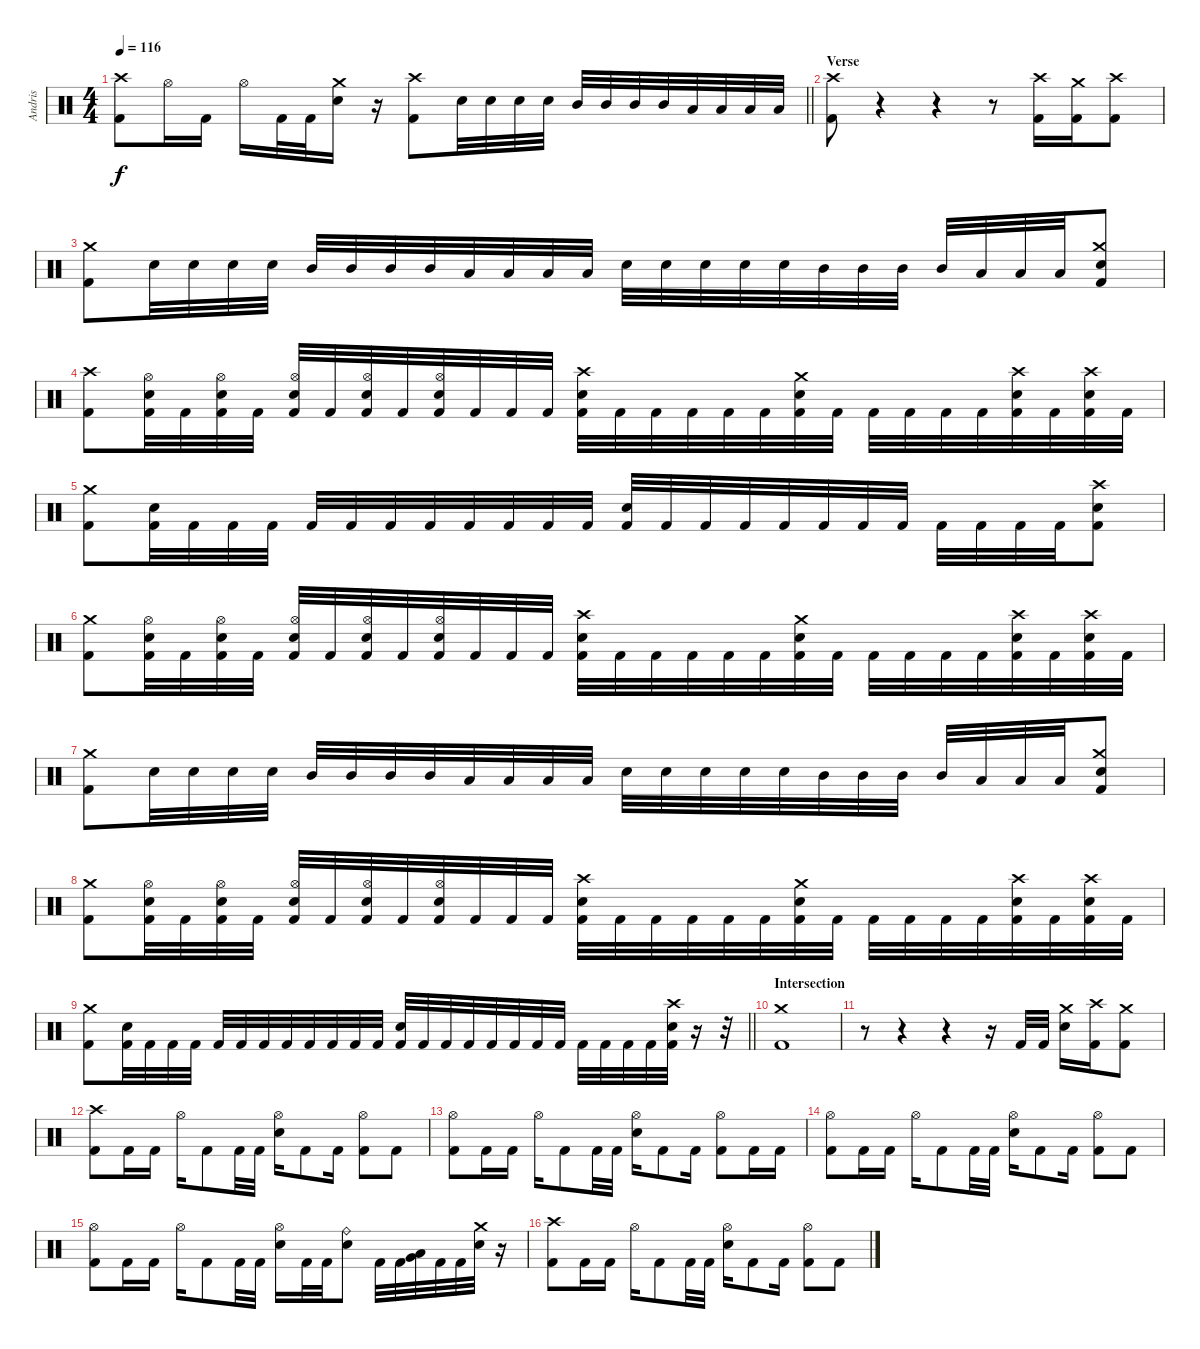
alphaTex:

\track ("Andris" "Andris") {instrument percussion}
\staff {score}
\articulation defaults
\ts (4 4)
\tempo 116
\clef neutral
\barLineRight lightlight
\ks c
("Crash high (hit)" "Kick (hit) 2").8{dy f} "Hi-Hat (open)".16 "Kick (hit) 2".16 "Hi-Hat (open)".16 "Kick (hit) 2".32 "Kick (hit) 2".32 ("Crash medium (hit)" "Electric Snare (hit)").16 r.16 ("Crash high (hit)" "Kick (hit) 2").8 "Electric Snare (hit)".32 "Electric Snare (hit)".32 "Electric Snare (hit)".32 "Electric Snare (hit)".32 "Mid Tom (hit)".32 "Mid Tom (hit)".32 "Mid Tom (hit)".32 "Mid Tom (hit)".32 "Low Tom (hit)".32 "Low Tom (hit)".32 "Low Tom (hit)".32 "Low Tom (hit)".32 |
\section ("" "Verse")
("Crash high (hit)" "Kick (hit) 2").8 r.4 r.4 r.8 ("Crash high (hit)" "Kick (hit) 2").16 ("Crash medium (hit)" "Kick (hit) 2").16 ("Crash high (hit)" "Kick (hit) 2").8 |
("Crash medium (hit)" "Kick (hit) 2").8 "Electric Snare (hit)".32 "Electric Snare (hit)".32 "Electric Snare (hit)".32 "Electric Snare (hit)".32 "Mid Tom (hit)".32 "Mid Tom (hit)".32 "Mid Tom (hit)".32 "Mid Tom (hit)".32 "Low Tom (hit)".32 "Low Tom (hit)".32 "Low Tom (hit)".32 "Low Tom (hit)".32 "Electric Snare (hit)".32 "Electric Snare (hit)".32 "Electric Snare (hit)".32 "Electric Snare (hit)".32 "Electric Snare (hit)".32 "Mid Tom (hit)".32 "Mid Tom (hit)".32 "Mid Tom (hit)".32 "Mid Tom (hit)".32 "Low Tom (hit)".32 "Low Tom (hit)".32 "Low Tom (hit)".32 ("Crash medium (hit)" "Electric Snare (hit)" "Kick (hit) 2").8 |
("Crash high (hit)" "Kick (hit) 2").8 ("Hi-Hat (open)" "Electric Snare (hit)" "Kick (hit) 2").32 "Kick (hit) 2".32 ("Hi-Hat (open)" "Electric Snare (hit)" "Kick (hit) 2").32 "Kick (hit) 2".32 ("Hi-Hat (open)" "Electric Snare (hit)" "Kick (hit) 2").32 "Kick (hit) 2".32 ("Hi-Hat (open)" "Electric Snare (hit)" "Kick (hit) 2").32 "Kick (hit) 2".32 ("Hi-Hat (open)" "Electric Snare (hit)" "Kick (hit) 2").32 "Kick (hit) 2".32 "Kick (hit) 2".32 "Kick (hit) 2".32 ("Crash high (hit)" "Electric Snare (hit)" "Kick (hit) 2").32 "Kick (hit) 2".32 "Kick (hit) 2".32 "Kick (hit) 2".32 "Kick (hit) 2".32 "Kick (hit) 2".32 ("Crash medium (hit)" "Electric Snare (hit)" "Kick (hit) 2").32 "Kick (hit) 2".32 "Kick (hit) 2".32 "Kick (hit) 2".32 "Kick (hit) 2".32 "Kick (hit) 2".32 ("Crash high (hit)" "Electric Snare (hit)" "Kick (hit) 2").32 "Kick (hit) 2".32 ("Crash high (hit)" "Electric Snare (hit)" "Kick (hit) 2").32 "Kick (hit) 2".32 |
("Crash medium (hit)" "Kick (hit) 2").8 ("Electric Snare (hit)" "Kick (hit) 2").32 "Kick (hit) 2".32 "Kick (hit) 2".32 "Kick (hit) 2".32 "Kick (hit) 2".32 "Kick (hit) 2".32 "Kick (hit) 2".32 "Kick (hit) 2".32 "Kick (hit) 2".32 "Kick (hit) 2".32 "Kick (hit) 2".32 "Kick (hit) 2".32 ("Electric Snare (hit)" "Kick (hit) 2").32 "Kick (hit) 2".32 "Kick (hit) 2".32 "Kick (hit) 2".32 "Kick (hit) 2".32 "Kick (hit) 2".32 "Kick (hit) 2".32 "Kick (hit) 2".32 "Kick (hit) 2".32 "Kick (hit) 2".32 "Kick (hit) 2".32 "Kick (hit) 2".32 ("Crash high (hit)" "Electric Snare (hit)" "Kick (hit) 2").8 |
("Crash medium (hit)" "Kick (hit) 2").8 ("Hi-Hat (open)" "Electric Snare (hit)" "Kick (hit) 2").32 "Kick (hit) 2".32 ("Hi-Hat (open)" "Electric Snare (hit)" "Kick (hit) 2").32 "Kick (hit) 2".32 ("Hi-Hat (open)" "Electric Snare (hit)" "Kick (hit) 2").32 "Kick (hit) 2".32 ("Hi-Hat (open)" "Electric Snare (hit)" "Kick (hit) 2").32 "Kick (hit) 2".32 ("Hi-Hat (open)" "Electric Snare (hit)" "Kick (hit) 2").32 "Kick (hit) 2".32 "Kick (hit) 2".32 "Kick (hit) 2".32 ("Crash high (hit)" "Electric Snare (hit)" "Kick (hit) 2").32 "Kick (hit) 2".32 "Kick (hit) 2".32 "Kick (hit) 2".32 "Kick (hit) 2".32 "Kick (hit) 2".32 ("Crash medium (hit)" "Electric Snare (hit)" "Kick (hit) 2").32 "Kick (hit) 2".32 "Kick (hit) 2".32 "Kick (hit) 2".32 "Kick (hit) 2".32 "Kick (hit) 2".32 ("Crash high (hit)" "Electric Snare (hit)" "Kick (hit) 2").32 "Kick (hit) 2".32 ("Crash high (hit)" "Electric Snare (hit)" "Kick (hit) 2").32 "Kick (hit) 2".32 |
("Crash medium (hit)" "Kick (hit) 2").8 "Electric Snare (hit)".32 "Electric Snare (hit)".32 "Electric Snare (hit)".32 "Electric Snare (hit)".32 "Mid Tom (hit)".32 "Mid Tom (hit)".32 "Mid Tom (hit)".32 "Mid Tom (hit)".32 "Low Tom (hit)".32 "Low Tom (hit)".32 "Low Tom (hit)".32 "Low Tom (hit)".32 "Electric Snare (hit)".32 "Electric Snare (hit)".32 "Electric Snare (hit)".32 "Electric Snare (hit)".32 "Electric Snare (hit)".32 "Mid Tom (hit)".32 "Mid Tom (hit)".32 "Mid Tom (hit)".32 "Mid Tom (hit)".32 "Low Tom (hit)".32 "Low Tom (hit)".32 "Low Tom (hit)".32 ("Crash medium (hit)" "Electric Snare (hit)" "Kick (hit) 2").8 |
("Crash medium (hit)" "Kick (hit) 2").8 ("Hi-Hat (open)" "Electric Snare (hit)" "Kick (hit) 2").32 "Kick (hit) 2".32 ("Hi-Hat (open)" "Electric Snare (hit)" "Kick (hit) 2").32 "Kick (hit) 2".32 ("Hi-Hat (open)" "Electric Snare (hit)" "Kick (hit) 2").32 "Kick (hit) 2".32 ("Hi-Hat (open)" "Electric Snare (hit)" "Kick (hit) 2").32 "Kick (hit) 2".32 ("Hi-Hat (open)" "Electric Snare (hit)" "Kick (hit) 2").32 "Kick (hit) 2".32 "Kick (hit) 2".32 "Kick (hit) 2".32 ("Crash high (hit)" "Electric Snare (hit)" "Kick (hit) 2").32 "Kick (hit) 2".32 "Kick (hit) 2".32 "Kick (hit) 2".32 "Kick (hit) 2".32 "Kick (hit) 2".32 ("Crash medium (hit)" "Electric Snare (hit)" "Kick (hit) 2").32 "Kick (hit) 2".32 "Kick (hit) 2".32 "Kick (hit) 2".32 "Kick (hit) 2".32 "Kick (hit) 2".32 ("Crash high (hit)" "Electric Snare (hit)" "Kick (hit) 2").32 "Kick (hit) 2".32 ("Crash high (hit)" "Electric Snare (hit)" "Kick (hit) 2").32 "Kick (hit) 2".32 |
\barLineRight lightlight
("Crash medium (hit)" "Kick (hit) 2").8 ("Electric Snare (hit)" "Kick (hit) 2").32 "Kick (hit) 2".32 "Kick (hit) 2".32 "Kick (hit) 2".32 "Kick (hit) 2".32 "Kick (hit) 2".32 "Kick (hit) 2".32 "Kick (hit) 2".32 "Kick (hit) 2".32 "Kick (hit) 2".32 "Kick (hit) 2".32 "Kick (hit) 2".32 ("Electric Snare (hit)" "Kick (hit) 2").32 "Kick (hit) 2".32 "Kick (hit) 2".32 "Kick (hit) 2".32 "Kick (hit) 2".32 "Kick (hit) 2".32 "Kick (hit) 2".32 "Kick (hit) 2".32 "Kick (hit) 2".32 "Kick (hit) 2".32 "Kick (hit) 2".32 "Kick (hit) 2".32 ("Crash high (hit)" "Electric Snare (hit)" "Kick (hit) 2").32 r.16 r.32 |
\section ("" "Intersection")
("Crash medium (hit)" "Kick (hit) 2").1 |
r.8 r.4 r.4 r.16 "Kick (hit) 2".32 "Kick (hit) 2".32 ("Crash medium (hit)" "Electric Snare (hit)").16 ("Crash high (hit)" "Kick (hit) 2").16 ("Crash medium (hit)" "Kick (hit) 2").8 |
("Crash high (hit)" "Kick (hit) 2").8 "Kick (hit) 2".16 "Kick (hit) 2".16 "Hi-Hat (open)".16 "Kick (hit) 2".8 "Kick (hit) 2".32 "Kick (hit) 2".32 ("Hi-Hat (open)" "Electric Snare (hit)").16 "Kick (hit) 2".8 "Kick (hit) 2".16 ("Hi-Hat (open)" "Kick (hit) 2").8 "Kick (hit) 2".8 |
("Hi-Hat (open)" "Kick (hit) 2").8 "Kick (hit) 2".16 "Kick (hit) 2".16 "Hi-Hat (open)".16 "Kick (hit) 2".8 "Kick (hit) 2".32 "Kick (hit) 2".32 ("Hi-Hat (open)" "Electric Snare (hit)").16 "Kick (hit) 2".8 "Kick (hit) 2".16 ("Hi-Hat (open)" "Kick (hit) 2").8 "Kick (hit) 2".16 "Kick (hit) 2".16 |
("Hi-Hat (open)" "Kick (hit) 2").8 "Kick (hit) 2".16 "Kick (hit) 2".16 "Hi-Hat (open)".16 "Kick (hit) 2".8 "Kick (hit) 2".32 "Kick (hit) 2".32 ("Hi-Hat (open)" "Electric Snare (hit)").16 "Kick (hit) 2".8 "Kick (hit) 2".16 ("Hi-Hat (open)" "Kick (hit) 2").8 "Kick (hit) 2".8 |
("Hi-Hat (open)" "Kick (hit) 2").8 "Kick (hit) 2".16 "Kick (hit) 2".16 "Hi-Hat (open)".16 "Kick (hit) 2".8 "Kick (hit) 2".32 "Kick (hit) 2".32 ("Hi-Hat (open)" "Electric Snare (hit)").16 "Kick (hit) 2".32 "Kick (hit) 2".32 ("Ride (bell)" "Electric Snare (hit)").8 "Kick (hit) 2".32 "Kick (hit) 2".32 ("Very Low Tom (hit)" "Low Tom (hit)").32 "Kick (hit) 2".32 "Kick (hit) 2".32 ("Crash medium (hit)" "Electric Snare (hit)").32 r.16 |
("Crash high (hit)" "Kick (hit) 2").8 "Kick (hit) 2".16 "Kick (hit) 2".16 "Hi-Hat (open)".16 "Kick (hit) 2".8 "Kick (hit) 2".32 "Kick (hit) 2".32 ("Hi-Hat (open)" "Electric Snare (hit)").16 "Kick (hit) 2".8 "Kick (hit) 2".16 ("Hi-Hat (open)" "Kick (hit) 2").8 "Kick (hit) 2".8
